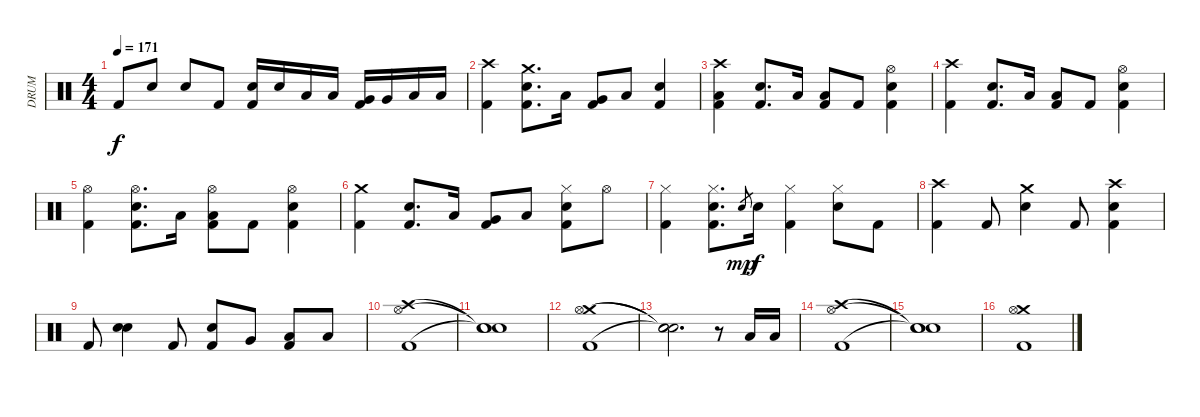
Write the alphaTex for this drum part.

\track ("DRUM" "DRUM") {instrument percussion}
\staff {score}
\articulation defaults
\ts (4 4)
\tempo 171
\clef neutral
\ks c "Kick (hit) 2".8{dy f} "Electric Snare (hit)".8 "Electric Snare (hit)".8 "Kick (hit) 2".8
("Electric Snare (hit)" "Kick (hit) 2").16 "Electric Snare (hit)".16 "Low Tom (hit)".16 "Low Tom (hit)".16 ("Very Low Tom (hit)" "Kick (hit) 2").16 "Very Low Tom (hit)".16 "Low Floor Tom (hit)".16 "Low Floor Tom (hit)".16 |
("Crash high (hit)" "Kick (hit) 2").4 ("Crash medium (hit)" "Electric Snare (hit)" "Kick (hit) 2").8{d} "Low Floor Tom (hit)".16 ("Very Low Tom (hit)" "Kick (hit) 2").8 "Low Tom (hit)".8 ("Electric Snare (hit)" "Kick (hit) 2").4 |
("Crash high (hit)" "Low Floor Tom (hit)" "Kick (hit) 2").4 ("Electric Snare (hit)" "Kick (hit) 2").8{d} "Low Tom (hit)".16 ("Low Floor Tom (hit)" "Kick (hit) 2").8 "Kick (hit) 2".8 ("Hi-Hat (open)" "Electric Snare (hit)" "Kick (hit) 2").4 |
("Crash high (hit)" "Kick (hit) 2").4 ("Electric Snare (hit)" "Kick (hit) 2").8{d} "Low Floor Tom (hit)".16 ("Low Tom (hit)" "Kick (hit) 2").8 "Kick (hit) 2".8 ("Hi-Hat (open)" "Electric Snare (hit)" "Kick (hit) 2").4 |
("Hi-Hat (open)" "Kick (hit) 2").4 ("Hi-Hat (open)" "Electric Snare (hit)" "Kick (hit) 2").8{d} "Low Floor Tom (hit)".16 ("Hi-Hat (open)" "Low Tom (hit)" "Kick (hit) 2").8 "Kick (hit) 2".8 ("Hi-Hat (open)" "Electric Snare (hit)" "Kick (hit) 2").4 |
("Crash medium (hit)" "Kick (hit) 2").4 ("Electric Snare (hit)" "Kick (hit) 2").8{d} "Low Floor Tom (hit)".16 ("Very Low Tom (hit)" "Kick (hit) 2").8 "Low Tom (hit)".8 ("Hi-Hat (closed)" "Electric Snare (hit)" "Kick (hit) 2").8 "Hi-Hat (open)".8 |
("Hi-Hat (closed)" "Kick (hit) 2").4 ("Hi-Hat (closed)" "Electric Snare (hit)" "Kick (hit) 2").8{d} "Electric Snare (hit)".8{gr dy mp} "Electric Snare (hit)".16{dy f} ("Hi-Hat (closed)" "Kick (hit) 2").4 ("Hi-Hat (closed)" "Electric Snare (hit)").8 "Kick (hit) 2".8 |
("Crash high (hit)" "Kick (hit) 2").4 "Kick (hit) 2".8 ("Crash medium (hit)" "Electric Snare (hit)").4 "Kick (hit) 2".8 ("Crash high (hit)" "Electric Snare (hit)" "Kick (hit) 2").4 |
"Kick (hit) 2".8 ("Electric Snare (hit)" "Electric Snare (hit)").4{bu 240} "Kick (hit) 2".8 ("Electric Snare (hit)" "Kick (hit) 2").8 "Very Low Tom (hit)".8 ("Low Tom (hit)" "Kick (hit) 2").8 "Low Tom (hit)".8 |
("Crash high (hit)" "Hi-Hat (open)" "Kick (hit) 2").1 |
("Snare (hit)"{t} "Snare (hit)"{t} "Snare (hit)"{t}).1 |
("Crash medium (hit)" "Hi-Hat (open)" "Kick (hit) 2").1 |
("Snare (hit)"{t} "Snare (hit)"{t} "Snare (hit)"{t}).2{d} r.8 "Low Tom (hit)".16 "Low Tom (hit)".16 |
("Crash high (hit)" "Hi-Hat (open)" "Kick (hit) 2").1 |
("Snare (hit)"{t} "Snare (hit)"{t} "Snare (hit)"{t}).1 |
("Crash medium (hit)" "Hi-Hat (open)" "Kick (hit) 2").1
